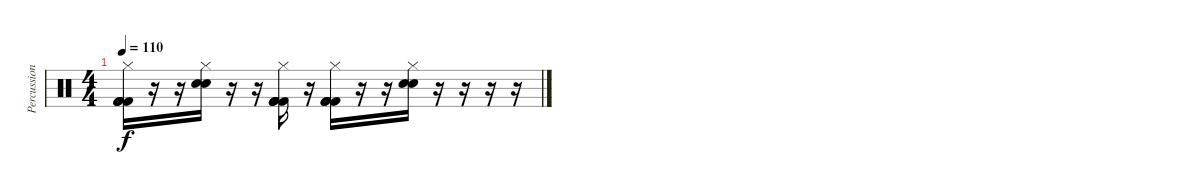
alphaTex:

\track ("Percussion" "Percussion") {instrument percussion}
\staff {score}
\articulation defaults
\ts (4 4)
\tempo 110
\clef neutral
\ks c
("Hi-Hat (closed)" "Kick (hit) 2" "Kick (hit) 2" "Kick (hit) 2" "Kick (hit) 2").16{dy f} r.16 r.16 ("Hi-Hat (closed)" "Snare (hit) 2" "Snare (hit) 2").16 r.16 r.16 ("Hi-Hat (closed)" "Kick (hit) 2" "Kick (hit) 2" "Kick (hit) 2" "Kick (hit) 2").16 r.16 ("Hi-Hat (closed)" "Kick (hit) 2" "Kick (hit) 2" "Kick (hit) 2" "Kick (hit) 2").16 r.16 r.16 ("Hi-Hat (closed)" "Snare (hit) 2" "Snare (hit) 2").16 r.16 r.16 r.16 r.16
